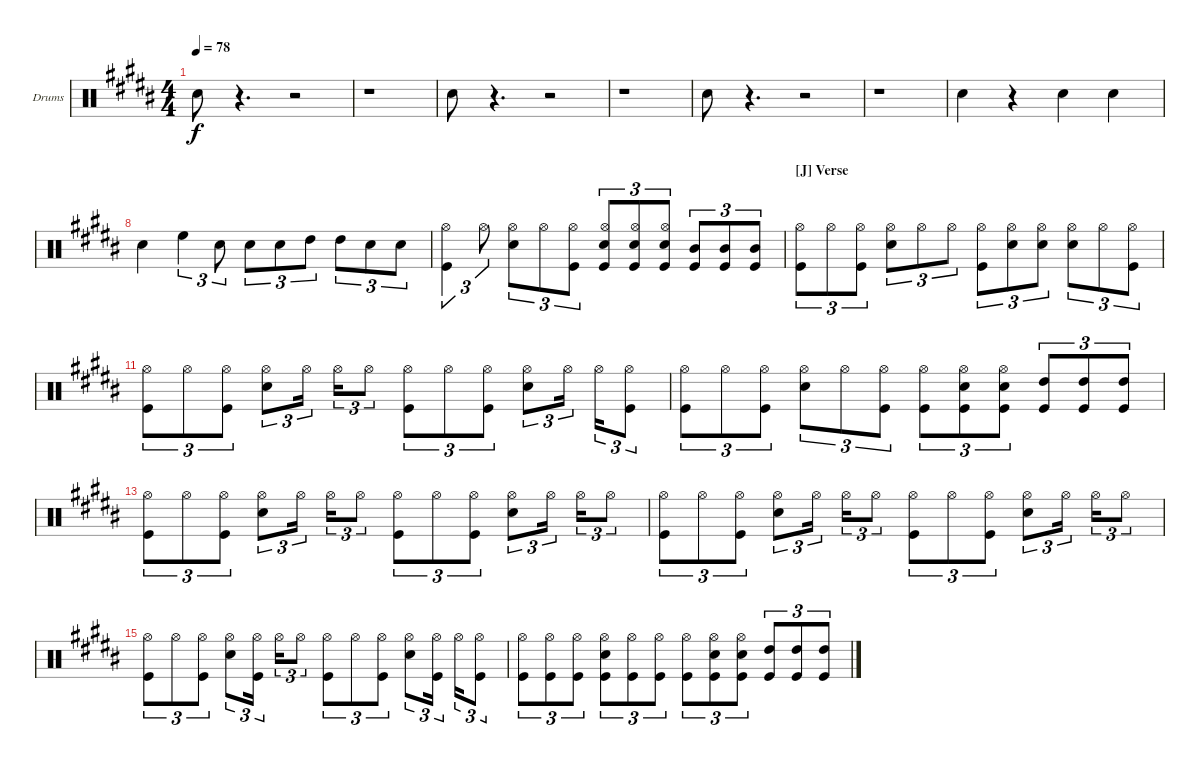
\bracketExtendMode nobrackets
\firstSystemTrackNameOrientation horizontal
\otherSystemsTrackNameOrientation horizontal
\defaultBarNumberDisplay FirstOfSystem
\track ("Drumkit" "Drums") {instrument percussion}
\staff {score}
\articulation defaults
\ts (4 4)
\scale
0.290084
\tempo 78
\accidentals auto
\clef neutral
\ottava regular
\simile none
\ks b "Snare (hit) 2".8{dy f}
r.4{d} r.2 |
r.1 |
"Snare (hit) 2".8 r.4{d} r.2 |
r.1 |
"Snare (hit) 2".8 r.4{d} r.2 |
r.1 |
"Snare (hit) 2".4 r.4 "Snare (hit) 2".4 "Snare (hit) 2".4 |
"Snare (hit) 2".4 "High Floor Tom (hit)".4{tu (3 2)} "Snare (hit) 2".8{tu (3 2)} "Snare (hit) 2".8{tu (3 2)} "Snare (hit) 2".8{tu (3 2)} "High Tom (hit)".8{tu (3 2)} "High Tom (hit)".8{tu (3 2)} "Snare (hit) 2".8{tu (3 2)} "Snare (hit) 2".8{tu (3 2)} |
("Hi-Hat (open)" "Kick (hit)").4{tu (3 2)} "Hi-Hat (open)".8{tu (3 2)} ("Hi-Hat (open)" "Snare (hit) 2").8{tu (3 2)} "Hi-Hat (open)".8{tu (3 2)} ("Hi-Hat (open)" "Kick (hit)").8{tu (3 2)} ("Hi-Hat (open)" "Snare (hit) 2" "Kick (hit)").8{tu (3 2)} ("Hi-Hat (open)" "Snare (hit) 2" "Kick (hit)").8{tu (3 2)} ("Hi-Hat (open)" "Snare (hit) 2" "Kick (hit)").8{tu (3 2)} ("Mid Tom (hit)" "Kick (hit)").8{tu (3 2)} ("Mid Tom (hit)" "Kick (hit)").8{tu (3 2)} ("Mid Tom (hit)" "Kick (hit)").8{tu (3 2)} |
\section ("J" "Verse")
("Hi-Hat (open)" "Kick (hit)").8{tu (3 2)} "Hi-Hat (open)".8{tu (3 2)} ("Hi-Hat (open)" "Kick (hit)").8{tu (3 2)} ("Hi-Hat (open)" "Snare (hit) 2").8{tu (3 2)} "Hi-Hat (open)".8{tu (3 2)} "Hi-Hat (open)".8{tu (3 2)} ("Hi-Hat (open)" "Kick (hit)").8{tu (3 2)} ("Hi-Hat (open)" "Snare (hit) 2").8{tu (3 2)} ("Hi-Hat (open)" "Snare (hit) 2").8{tu (3 2)} ("Hi-Hat (open)" "Snare (hit) 2").8{tu (3 2)} "Hi-Hat (open)".8{tu (3 2)} ("Hi-Hat (open)" "Kick (hit)").8{tu (3 2)} |
("Hi-Hat (open)" "Kick (hit)").8{tu (3 2)} "Hi-Hat (open)".8{tu (3 2)} ("Hi-Hat (open)" "Kick (hit)").8{tu (3 2)} ("Hi-Hat (open)" "Snare (hit) 2").8{tu (3 2)} "Hi-Hat (open)".16{tu (3 2)} "Hi-Hat (open)".16{tu (3 2)} "Hi-Hat (open)".8{tu (3 2)} ("Hi-Hat (open)" "Kick (hit)").8{tu (3 2)} "Hi-Hat (open)".8{tu (3 2)} ("Hi-Hat (open)" "Kick (hit)").8{tu (3 2)} ("Hi-Hat (open)" "Snare (hit) 2").8{tu (3 2)} "Hi-Hat (open)".16{tu (3 2)} "Hi-Hat (open)".16{tu (3 2)} ("Hi-Hat (open)" "Kick (hit)").8{tu (3 2)} |
("Hi-Hat (open)" "Kick (hit)").8{tu (3 2)} "Hi-Hat (open)".8{tu (3 2)} ("Hi-Hat (open)" "Kick (hit)").8{tu (3 2)} ("Hi-Hat (open)" "Snare (hit) 2").8{tu (3 2)} "Hi-Hat (open)".8{tu (3 2)} ("Hi-Hat (open)" "Kick (hit)").8{tu (3 2)} ("Hi-Hat (open)" "Kick (hit)").8{tu (3 2)} ("Hi-Hat (open)" "Snare (hit) 2" "Kick (hit)").8{tu (3 2)} ("Hi-Hat (open)" "Snare (hit) 2" "Kick (hit)").8{tu (3 2)} ("High Tom (hit)" "Kick (hit)").8{tu (3 2)} ("High Tom (hit)" "Kick (hit)").8{tu (3 2)} ("High Tom (hit)" "Kick (hit)").8{tu (3 2)} |
("Hi-Hat (open)" "Kick (hit)").8{tu (3 2)} "Hi-Hat (open)".8{tu (3 2)} ("Hi-Hat (open)" "Kick (hit)").8{tu (3 2)} ("Hi-Hat (open)" "Snare (hit) 2").8{tu (3 2)} "Hi-Hat (open)".16{tu (3 2)} "Hi-Hat (open)".16{tu (3 2)} "Hi-Hat (open)".8{tu (3 2)} ("Hi-Hat (open)" "Kick (hit)").8{tu (3 2)} "Hi-Hat (open)".8{tu (3 2)} ("Hi-Hat (open)" "Kick (hit)").8{tu (3 2)} ("Hi-Hat (open)" "Snare (hit) 2").8{tu (3 2)} "Hi-Hat (open)".16{tu (3 2)} "Hi-Hat (open)".16{tu (3 2)} "Hi-Hat (open)".8{tu (3 2)} |
("Hi-Hat (open)" "Kick (hit)").8{tu (3 2)} "Hi-Hat (open)".8{tu (3 2)} ("Hi-Hat (open)" "Kick (hit)").8{tu (3 2)} ("Hi-Hat (open)" "Snare (hit) 2").8{tu (3 2)} "Hi-Hat (open)".16{tu (3 2)} "Hi-Hat (open)".16{tu (3 2)} "Hi-Hat (open)".8{tu (3 2)} ("Hi-Hat (open)" "Kick (hit)").8{tu (3 2)} "Hi-Hat (open)".8{tu (3 2)} ("Hi-Hat (open)" "Kick (hit)").8{tu (3 2)} ("Hi-Hat (open)" "Snare (hit) 2").8{tu (3 2)} "Hi-Hat (open)".16{tu (3 2)} "Hi-Hat (open)".16{tu (3 2)} "Hi-Hat (open)".8{tu (3 2)} |
("Hi-Hat (open)" "Kick (hit)").8{tu (3 2)} "Hi-Hat (open)".8{tu (3 2)} ("Hi-Hat (open)" "Kick (hit)").8{tu (3 2)} ("Hi-Hat (open)" "Snare (hit) 2").8{tu (3 2)} ("Hi-Hat (open)" "Kick (hit)").16{tu (3 2)} "Hi-Hat (open)".16{tu (3 2)} "Hi-Hat (open)".8{tu (3 2)} ("Hi-Hat (open)" "Kick (hit)").8{tu (3 2)} "Hi-Hat (open)".8{tu (3 2)} ("Hi-Hat (open)" "Kick (hit)").8{tu (3 2)} ("Hi-Hat (open)" "Snare (hit) 2").8{tu (3 2)} ("Hi-Hat (open)" "Kick (hit)").16{tu (3 2)} "Hi-Hat (open)".16{tu (3 2)} ("Hi-Hat (open)" "Kick (hit)").8{tu (3 2)} |
("Hi-Hat (open)" "Kick (hit)").8{tu (3 2)} ("Hi-Hat (open)" "Kick (hit)").8{tu (3 2)} ("Hi-Hat (open)" "Kick (hit)").8{tu (3 2)} ("Hi-Hat (open)" "Snare (hit) 2" "Kick (hit)").8{tu (3 2)} ("Hi-Hat (open)" "Kick (hit)").8{tu (3 2)} ("Hi-Hat (open)" "Kick (hit)").8{tu (3 2)} ("Hi-Hat (open)" "Kick (hit)").8{tu (3 2)} ("Hi-Hat (open)" "Snare (hit) 2" "Kick (hit)").8{tu (3 2)} ("Hi-Hat (open)" "Snare (hit) 2" "Kick (hit)").8{tu (3 2)} ("High Tom (hit)" "Kick (hit)").8{tu (3 2)} ("High Tom (hit)" "Kick (hit)").8{tu (3 2)} ("High Tom (hit)" "Kick (hit)").8{tu (3 2)}
